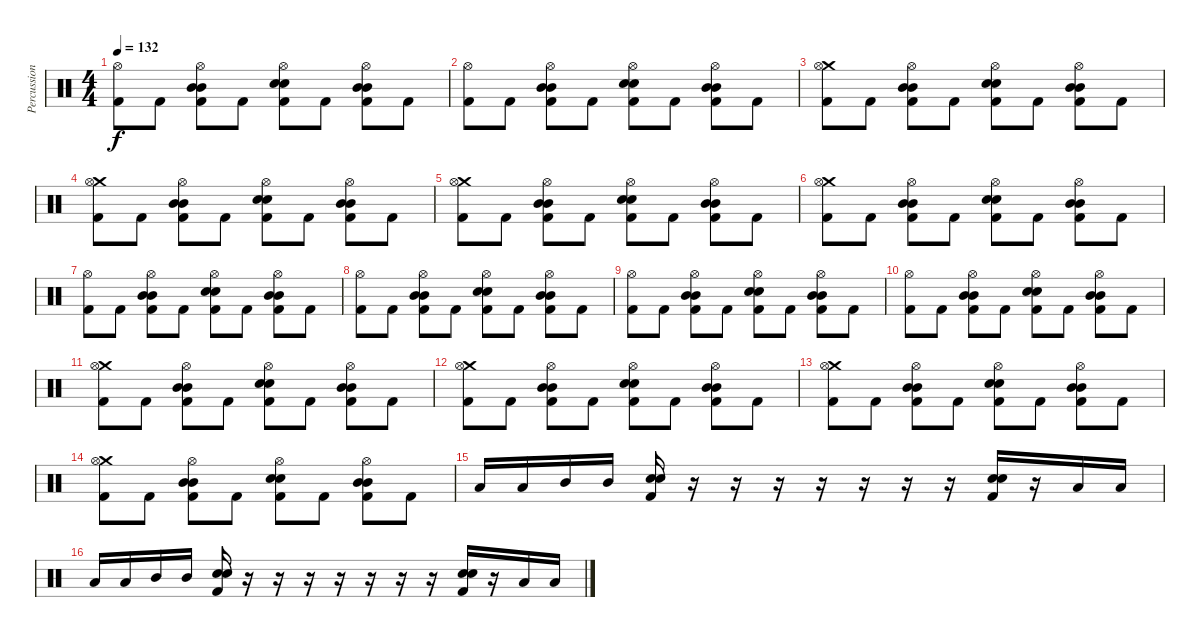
\track ("Percussion" "Percussion") {instrument percussion}
\staff {score}
\articulation defaults
\ts (4 4)
\tempo 132
\clef neutral
\ks c
("Hi-Hat (open)" "Kick (hit) 2").8{dy f} "Kick (hit) 2".8 ("Hi-Hat (open)" "Mid Tom (hit)" "Mid Tom (hit)" "Kick (hit) 2").8 "Kick (hit) 2".8 ("Hi-Hat (open)" "Snare (hit) 2" "Snare (hit) 2" "Kick (hit) 2").8 "Kick (hit) 2".8 ("Hi-Hat (open)" "Mid Tom (hit)" "Mid Tom (hit)" "Kick (hit) 2").8 "Kick (hit) 2".8 |
("Hi-Hat (open)" "Kick (hit) 2").8 "Kick (hit) 2".8 ("Hi-Hat (open)" "Mid Tom (hit)" "Mid Tom (hit)" "Kick (hit) 2").8 "Kick (hit) 2".8 ("Hi-Hat (open)" "Snare (hit) 2" "Snare (hit) 2" "Kick (hit) 2").8 "Kick (hit) 2".8 ("Hi-Hat (open)" "Mid Tom (hit)" "Mid Tom (hit)" "Kick (hit) 2").8 "Kick (hit) 2".8 |
("Crash medium (hit)" "Hi-Hat (open)" "Kick (hit) 2").8 "Kick (hit) 2".8 ("Hi-Hat (open)" "Mid Tom (hit)" "Mid Tom (hit)" "Kick (hit) 2").8 "Kick (hit) 2".8 ("Hi-Hat (open)" "Snare (hit) 2" "Snare (hit) 2" "Kick (hit) 2").8 "Kick (hit) 2".8 ("Hi-Hat (open)" "Mid Tom (hit)" "Mid Tom (hit)" "Kick (hit) 2").8 "Kick (hit) 2".8 |
("Crash medium (hit)" "Hi-Hat (open)" "Kick (hit) 2").8 "Kick (hit) 2".8 ("Hi-Hat (open)" "Mid Tom (hit)" "Mid Tom (hit)" "Kick (hit) 2").8 "Kick (hit) 2".8 ("Hi-Hat (open)" "Snare (hit) 2" "Snare (hit) 2" "Kick (hit) 2").8 "Kick (hit) 2".8 ("Hi-Hat (open)" "Mid Tom (hit)" "Mid Tom (hit)" "Kick (hit) 2").8 "Kick (hit) 2".8 |
("Crash medium (hit)" "Hi-Hat (open)" "Kick (hit) 2").8 "Kick (hit) 2".8 ("Hi-Hat (open)" "Mid Tom (hit)" "Mid Tom (hit)" "Kick (hit) 2").8 "Kick (hit) 2".8 ("Hi-Hat (open)" "Snare (hit) 2" "Snare (hit) 2" "Kick (hit) 2").8 "Kick (hit) 2".8 ("Hi-Hat (open)" "Mid Tom (hit)" "Mid Tom (hit)" "Kick (hit) 2").8 "Kick (hit) 2".8 |
("Crash medium (hit)" "Hi-Hat (open)" "Kick (hit) 2").8 "Kick (hit) 2".8 ("Hi-Hat (open)" "Mid Tom (hit)" "Mid Tom (hit)" "Kick (hit) 2").8 "Kick (hit) 2".8 ("Hi-Hat (open)" "Snare (hit) 2" "Snare (hit) 2" "Kick (hit) 2").8 "Kick (hit) 2".8 ("Hi-Hat (open)" "Mid Tom (hit)" "Mid Tom (hit)" "Kick (hit) 2").8 "Kick (hit) 2".8 |
("Hi-Hat (open)" "Kick (hit) 2").8 "Kick (hit) 2".8 ("Hi-Hat (open)" "Mid Tom (hit)" "Mid Tom (hit)" "Kick (hit) 2").8 "Kick (hit) 2".8 ("Hi-Hat (open)" "Snare (hit) 2" "Snare (hit) 2" "Kick (hit) 2").8 "Kick (hit) 2".8 ("Hi-Hat (open)" "Mid Tom (hit)" "Mid Tom (hit)" "Kick (hit) 2").8 "Kick (hit) 2".8 |
("Hi-Hat (open)" "Kick (hit) 2").8 "Kick (hit) 2".8 ("Hi-Hat (open)" "Mid Tom (hit)" "Mid Tom (hit)" "Kick (hit) 2").8 "Kick (hit) 2".8 ("Hi-Hat (open)" "Snare (hit) 2" "Snare (hit) 2" "Kick (hit) 2").8 "Kick (hit) 2".8 ("Hi-Hat (open)" "Mid Tom (hit)" "Mid Tom (hit)" "Kick (hit) 2").8 "Kick (hit) 2".8 |
("Hi-Hat (open)" "Kick (hit) 2").8 "Kick (hit) 2".8 ("Hi-Hat (open)" "Mid Tom (hit)" "Mid Tom (hit)" "Kick (hit) 2").8 "Kick (hit) 2".8 ("Hi-Hat (open)" "Snare (hit) 2" "Snare (hit) 2" "Kick (hit) 2").8 "Kick (hit) 2".8 ("Hi-Hat (open)" "Mid Tom (hit)" "Mid Tom (hit)" "Kick (hit) 2").8 "Kick (hit) 2".8 |
("Hi-Hat (open)" "Kick (hit) 2").8 "Kick (hit) 2".8 ("Hi-Hat (open)" "Mid Tom (hit)" "Mid Tom (hit)" "Kick (hit) 2").8 "Kick (hit) 2".8 ("Hi-Hat (open)" "Snare (hit) 2" "Snare (hit) 2" "Kick (hit) 2").8 "Kick (hit) 2".8 ("Hi-Hat (open)" "Mid Tom (hit)" "Mid Tom (hit)" "Kick (hit) 2").8 "Kick (hit) 2".8 |
("Crash medium (hit)" "Hi-Hat (open)" "Kick (hit) 2").8 "Kick (hit) 2".8 ("Hi-Hat (open)" "Mid Tom (hit)" "Mid Tom (hit)" "Kick (hit) 2").8 "Kick (hit) 2".8 ("Hi-Hat (open)" "Snare (hit) 2" "Snare (hit) 2" "Kick (hit) 2").8 "Kick (hit) 2".8 ("Hi-Hat (open)" "Mid Tom (hit)" "Mid Tom (hit)" "Kick (hit) 2").8 "Kick (hit) 2".8 |
("Crash medium (hit)" "Hi-Hat (open)" "Kick (hit) 2").8 "Kick (hit) 2".8 ("Hi-Hat (open)" "Mid Tom (hit)" "Mid Tom (hit)" "Kick (hit) 2").8 "Kick (hit) 2".8 ("Hi-Hat (open)" "Snare (hit) 2" "Snare (hit) 2" "Kick (hit) 2").8 "Kick (hit) 2".8 ("Hi-Hat (open)" "Mid Tom (hit)" "Mid Tom (hit)" "Kick (hit) 2").8 "Kick (hit) 2".8 |
("Crash medium (hit)" "Hi-Hat (open)" "Kick (hit) 2").8 "Kick (hit) 2".8 ("Hi-Hat (open)" "Mid Tom (hit)" "Mid Tom (hit)" "Kick (hit) 2").8 "Kick (hit) 2".8 ("Hi-Hat (open)" "Snare (hit) 2" "Snare (hit) 2" "Kick (hit) 2").8 "Kick (hit) 2".8 ("Hi-Hat (open)" "Mid Tom (hit)" "Mid Tom (hit)" "Kick (hit) 2").8 "Kick (hit) 2".8 |
("Crash medium (hit)" "Hi-Hat (open)" "Kick (hit) 2").8 "Kick (hit) 2".8 ("Hi-Hat (open)" "Mid Tom (hit)" "Mid Tom (hit)" "Kick (hit) 2").8 "Kick (hit) 2".8 ("Hi-Hat (open)" "Snare (hit) 2" "Snare (hit) 2" "Kick (hit) 2").8 "Kick (hit) 2".8 ("Hi-Hat (open)" "Mid Tom (hit)" "Mid Tom (hit)" "Kick (hit) 2").8 "Kick (hit) 2".8 |
"Low Tom (hit)".16 "Low Tom (hit)".16 "Mid Tom (hit)".16 "Mid Tom (hit)".16 ("Electric Snare (hit)" "Snare (hit) 2" "Kick (hit) 2").16 r.16 r.16 r.16 r.16 r.16 r.16 r.16 ("Electric Snare (hit)" "Snare (hit) 2" "Kick (hit) 2").16 r.16 "Low Tom (hit)".16 "Low Tom (hit)".16 |
"Low Tom (hit)".16 "Low Tom (hit)".16 "Mid Tom (hit)".16 "Mid Tom (hit)".16 ("Electric Snare (hit)" "Snare (hit) 2" "Kick (hit) 2").16 r.16 r.16 r.16 r.16 r.16 r.16 r.16 ("Electric Snare (hit)" "Snare (hit) 2" "Kick (hit) 2").16 r.16 "Low Tom (hit)".16 "Low Tom (hit)".16
